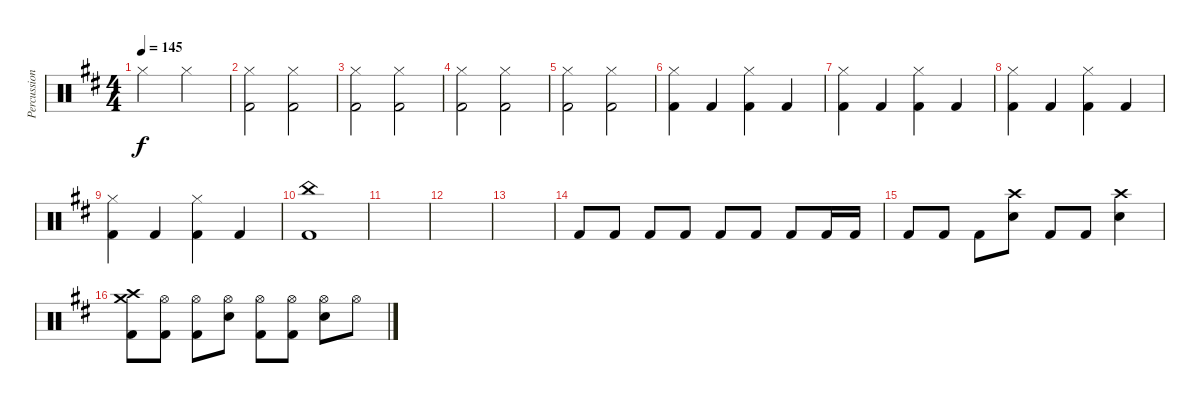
\track ("Percussion" "Percussion") {instrument percussion}
\staff {score}
\articulation defaults
\ts (4 4)
\tempo 145
\clef neutral
\ks d "Hi-Hat (closed)".2{dy f} "Hi-Hat (closed)".2
|
("Hi-Hat (closed)" "Kick (hit) 2").2 ("Hi-Hat (closed)" "Kick (hit) 2").2 |
("Hi-Hat (closed)" "Kick (hit) 2").2 ("Hi-Hat (closed)" "Kick (hit) 2").2 |
("Hi-Hat (closed)" "Kick (hit) 2").2 ("Hi-Hat (closed)" "Kick (hit) 2").2 |
("Hi-Hat (closed)" "Kick (hit) 2").2 ("Hi-Hat (closed)" "Kick (hit) 2").2 |
("Hi-Hat (closed)" "Kick (hit) 2").4 "Kick (hit) 2".4 ("Hi-Hat (closed)" "Kick (hit) 2").4 "Kick (hit) 2".4 |
("Hi-Hat (closed)" "Kick (hit) 2").4 "Kick (hit) 2".4 ("Hi-Hat (closed)" "Kick (hit) 2").4 "Kick (hit) 2".4 |
("Hi-Hat (closed)" "Kick (hit) 2").4 "Kick (hit) 2".4 ("Hi-Hat (closed)" "Kick (hit) 2").4 "Kick (hit) 2".4 |
("Hi-Hat (closed)" "Kick (hit) 2").4 "Kick (hit) 2".4 ("Hi-Hat (closed)" "Kick (hit) 2").4 "Kick (hit) 2".4 |
("China (hit)" "Kick (hit) 2").1{volume 5} |
|
|
|
"Kick (hit) 2".8{volume 16} "Kick (hit) 2".8 "Kick (hit) 2".8 "Kick (hit) 2".8 "Kick (hit) 2".8 "Kick (hit) 2".8 "Kick (hit) 2".8 "Kick (hit) 2".16 "Kick (hit) 2".16 |
"Kick (hit) 2".8 "Kick (hit) 2".8 "Kick (hit) 2".8 ("Crash high (hit)" "Electric Snare (hit)").8 "Kick (hit) 2".8 "Kick (hit) 2".8 ("Crash high (hit)" "Electric Snare (hit)").4 |
("Crash high (hit)" "Crash medium (hit)" "Kick (hit) 2").8 ("Hi-Hat (open)" "Kick (hit) 2").8 ("Hi-Hat (open)" "Kick (hit) 2").8 ("Hi-Hat (open)" "Electric Snare (hit)").8 ("Hi-Hat (open)" "Kick (hit) 2").8 ("Hi-Hat (open)" "Kick (hit) 2").8 ("Hi-Hat (open)" "Electric Snare (hit)").8 "Hi-Hat (open)".8
